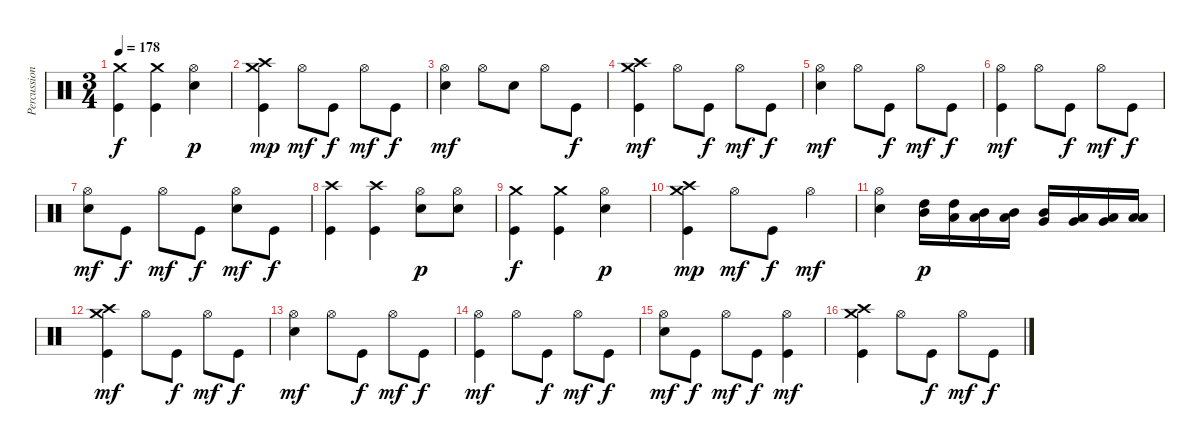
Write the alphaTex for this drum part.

\track ("Percussions" "Percussion") {instrument percussion}
\staff {score}
\articulation defaults
\ts (3 4)
\tempo 178
\clef neutral
\ks c
("Kick (hit)" "Crash medium (hit)").4{dy f} ("Kick (hit)" "Crash medium (hit)").4 ("Electric Snare (hit)" "Hi-Hat (open)").4{dy p} |
("Kick (hit)" "Crash high (hit)" "Crash medium (hit)").4{dy mp} "Hi-Hat (open)".8{dy mf} "Kick (hit)".8{dy f} "Hi-Hat (open)".8{dy mf} "Kick (hit)".8{dy f} |
("Electric Snare (hit)" "Hi-Hat (open)").4{dy mf} "Hi-Hat (open)".8 "Electric Snare (hit)".8 "Hi-Hat (open)".8 "Kick (hit)".8{dy f} |
("Kick (hit)" "Crash high (hit)" "Crash medium (hit)").4{dy mf} "Hi-Hat (open)".8 "Kick (hit)".8{dy f} "Hi-Hat (open)".8{dy mf} "Kick (hit)".8{dy f} |
("Electric Snare (hit)" "Hi-Hat (open)").4{dy mf} "Hi-Hat (open)".8 "Kick (hit)".8{dy f} "Hi-Hat (open)".8{dy mf} "Kick (hit)".8{dy f} |
("Kick (hit)" "Hi-Hat (open)").4{dy mf} "Hi-Hat (open)".8 "Kick (hit)".8{dy f} "Hi-Hat (open)".8{dy mf} "Kick (hit)".8{dy f} |
("Electric Snare (hit)" "Hi-Hat (open)").8{dy mf} "Kick (hit)".8{dy f} "Hi-Hat (open)".8{dy mf} "Kick (hit)".8{dy f} ("Electric Snare (hit)" "Hi-Hat (open)").8{dy mf} "Kick (hit)".8{dy f} |
("Kick (hit)" "Crash high (hit)").4 ("Kick (hit)" "Crash high (hit)").4 ("Electric Snare (hit)" "Hi-Hat (open)").8{dy p} ("Electric Snare (hit)" "Hi-Hat (open)").8 |
("Kick (hit)" "Crash medium (hit)").4{dy f} ("Kick (hit)" "Crash medium (hit)").4 ("Electric Snare (hit)" "Hi-Hat (open)").4{dy p} |
("Kick (hit)" "Crash high (hit)" "Crash medium (hit)").4{dy mp} "Hi-Hat (open)".8{dy mf} "Kick (hit)".8{dy f} "Hi-Hat (open)".4{dy mf} |
("Electric Snare (hit)" "Hi-Hat (open)").4 ("Mid Tom (hit)" "High Tom (hit)").16{dy p} ("Low Tom (hit)" "High Tom (hit)").16 ("Low Tom (hit)" "Mid Tom (hit)").16 ("Low Tom (hit)" "Mid Tom (hit)").16 ("Very Low Tom (hit)" "Mid Tom (hit)").16 ("Very Low Tom (hit)" "Low Tom (hit)").16 ("Very Low Tom (hit)" "Low Tom (hit)").16 ("Low Floor Tom (hit)" "Low Tom (hit)").16 |
("Kick (hit)" "Crash high (hit)" "Crash medium (hit)").4{dy mf} "Hi-Hat (open)".8 "Kick (hit)".8{dy f} "Hi-Hat (open)".8{dy mf} "Kick (hit)".8{dy f} |
("Electric Snare (hit)" "Hi-Hat (open)").4{dy mf} "Hi-Hat (open)".8 "Kick (hit)".8{dy f} "Hi-Hat (open)".8{dy mf} "Kick (hit)".8{dy f} |
("Kick (hit)" "Hi-Hat (open)").4{dy mf} "Hi-Hat (open)".8 "Kick (hit)".8{dy f} "Hi-Hat (open)".8{dy mf} "Kick (hit)".8{dy f} |
("Electric Snare (hit)" "Hi-Hat (open)").8{dy mf} "Kick (hit)".8{dy f} "Hi-Hat (open)".8{dy mf} "Kick (hit)".8{dy f} ("Kick (hit)" "Hi-Hat (open)").4{dy mf} |
("Kick (hit)" "Crash high (hit)" "Crash medium (hit)").4 "Hi-Hat (open)".8 "Kick (hit)".8{dy f} "Hi-Hat (open)".8{dy mf} "Kick (hit)".8{dy f}
